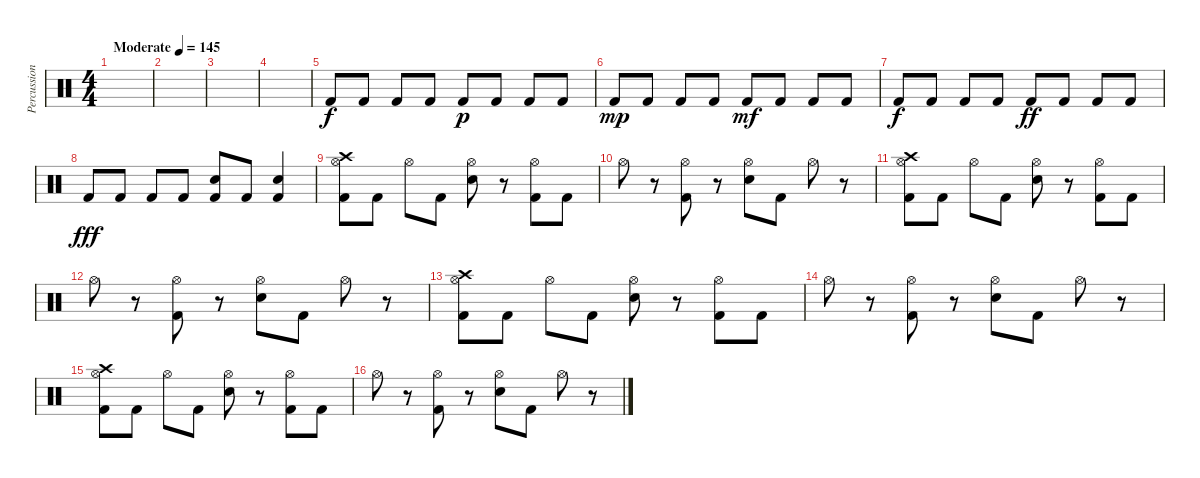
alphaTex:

\track ("Percussion" "Percussion") {instrument percussion}
\staff {score}
\articulation defaults
\ts (4 4)
\tempo (145 "Moderate")
\clef neutral
\ks c
|
|
|
|
"Kick (hit) 2".8 "Kick (hit) 2".8 "Kick (hit) 2".8 "Kick (hit) 2".8 "Kick (hit) 2".8{dy p} "Kick (hit) 2".8 "Kick (hit) 2".8 "Kick (hit) 2".8 |
"Kick (hit) 2".8{dy mp} "Kick (hit) 2".8 "Kick (hit) 2".8 "Kick (hit) 2".8 "Kick (hit) 2".8{dy mf} "Kick (hit) 2".8 "Kick (hit) 2".8 "Kick (hit) 2".8 |
"Kick (hit) 2".8{dy f} "Kick (hit) 2".8 "Kick (hit) 2".8 "Kick (hit) 2".8 "Kick (hit) 2".8{dy ff} "Kick (hit) 2".8 "Kick (hit) 2".8 "Kick (hit) 2".8 |
"Kick (hit) 2".8{dy fff} "Kick (hit) 2".8 "Kick (hit) 2".8 "Kick (hit) 2".8 ("Kick (hit) 2" "Snare (hit) 2").8 "Kick (hit) 2".8 ("Kick (hit) 2" "Snare (hit) 2").4 |
("Hi-Hat (open)" "Crash high (hit)" "Kick (hit) 2").8 "Kick (hit) 2".8 "Hi-Hat (open)".8 "Kick (hit) 2".8 ("Hi-Hat (open)" "Snare (hit) 2").8 r.8 ("Hi-Hat (open)" "Kick (hit) 2").8 "Kick (hit) 2".8 |
"Hi-Hat (open)".8 r.8 ("Hi-Hat (open)" "Kick (hit) 2").8 r.8 ("Hi-Hat (open)" "Snare (hit) 2").8 "Kick (hit) 2".8 "Hi-Hat (open)".8 r.8 |
("Hi-Hat (open)" "Crash high (hit)" "Kick (hit) 2").8 "Kick (hit) 2".8 "Hi-Hat (open)".8 "Kick (hit) 2".8 ("Hi-Hat (open)" "Snare (hit) 2").8 r.8 ("Hi-Hat (open)" "Kick (hit) 2").8 "Kick (hit) 2".8 |
"Hi-Hat (open)".8 r.8 ("Hi-Hat (open)" "Kick (hit) 2").8 r.8 ("Hi-Hat (open)" "Snare (hit) 2").8 "Kick (hit) 2".8 "Hi-Hat (open)".8 r.8 |
("Hi-Hat (open)" "Crash high (hit)" "Kick (hit) 2").8 "Kick (hit) 2".8 "Hi-Hat (open)".8 "Kick (hit) 2".8 ("Hi-Hat (open)" "Snare (hit) 2").8 r.8 ("Hi-Hat (open)" "Kick (hit) 2").8 "Kick (hit) 2".8 |
"Hi-Hat (open)".8 r.8 ("Hi-Hat (open)" "Kick (hit) 2").8 r.8 ("Hi-Hat (open)" "Snare (hit) 2").8 "Kick (hit) 2".8 "Hi-Hat (open)".8 r.8 |
("Hi-Hat (open)" "Crash high (hit)" "Kick (hit) 2").8 "Kick (hit) 2".8 "Hi-Hat (open)".8 "Kick (hit) 2".8 ("Hi-Hat (open)" "Snare (hit) 2").8 r.8 ("Hi-Hat (open)" "Kick (hit) 2").8 "Kick (hit) 2".8 |
"Hi-Hat (open)".8 r.8 ("Hi-Hat (open)" "Kick (hit) 2").8 r.8 ("Hi-Hat (open)" "Snare (hit) 2").8 "Kick (hit) 2".8 "Hi-Hat (open)".8 r.8
